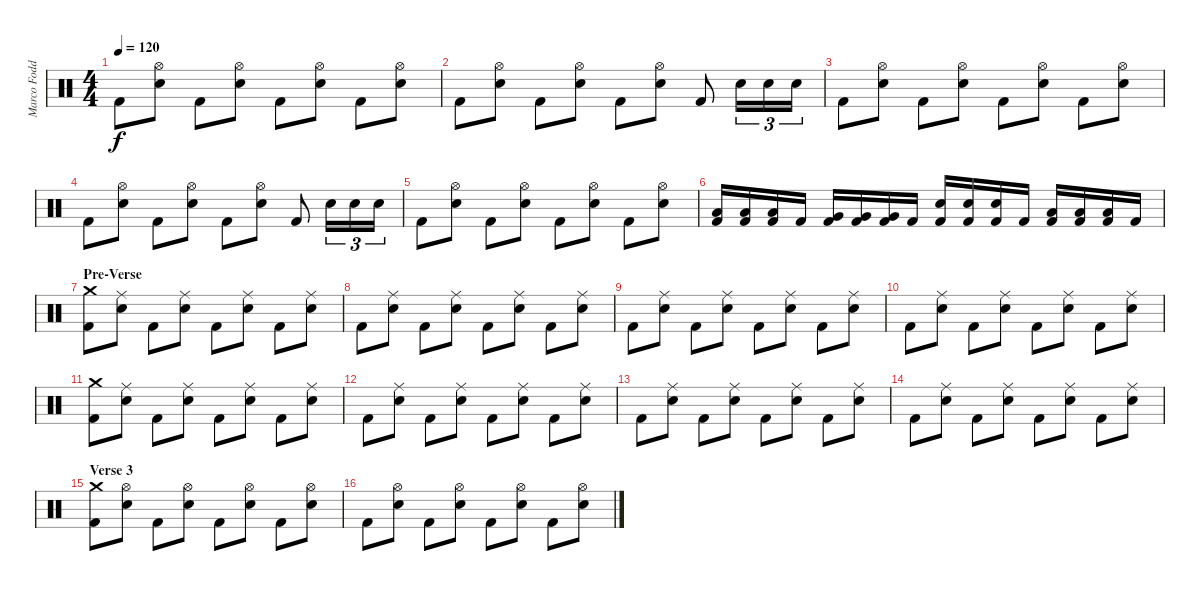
\track ("Marco Foddis " "Marco Fodd") {instrument percussion}
\staff {score}
\articulation defaults
\ts (4 4)
\tempo 120
\clef neutral
\ks c "Kick (hit) 2".8{dy f}
("Hi-Hat (open)" "Electric Snare (hit)").8 "Kick (hit) 2".8 ("Hi-Hat (open)" "Electric Snare (hit)").8 "Kick (hit) 2".8 ("Hi-Hat (open)" "Electric Snare (hit)").8 "Kick (hit) 2".8 ("Hi-Hat (open)" "Electric Snare (hit)").8 |
"Kick (hit) 2".8 ("Hi-Hat (open)" "Electric Snare (hit)").8 "Kick (hit) 2".8 ("Hi-Hat (open)" "Electric Snare (hit)").8 "Kick (hit) 2".8 ("Hi-Hat (open)" "Electric Snare (hit)").8 "Kick (hit) 2".8 "Electric Snare (hit)".16{tu (3 2)} "Electric Snare (hit)".16{tu (3 2)} "Electric Snare (hit)".16{tu (3 2)} |
"Kick (hit) 2".8 ("Hi-Hat (open)" "Electric Snare (hit)").8 "Kick (hit) 2".8 ("Hi-Hat (open)" "Electric Snare (hit)").8 "Kick (hit) 2".8 ("Hi-Hat (open)" "Electric Snare (hit)").8 "Kick (hit) 2".8 ("Hi-Hat (open)" "Electric Snare (hit)").8 |
"Kick (hit) 2".8 ("Hi-Hat (open)" "Electric Snare (hit)").8 "Kick (hit) 2".8 ("Hi-Hat (open)" "Electric Snare (hit)").8 "Kick (hit) 2".8 ("Hi-Hat (open)" "Electric Snare (hit)").8 "Kick (hit) 2".8 "Electric Snare (hit)".16{tu (3 2)} "Electric Snare (hit)".16{tu (3 2)} "Electric Snare (hit)".16{tu (3 2)} |
"Kick (hit) 2".8 ("Hi-Hat (open)" "Electric Snare (hit)").8 "Kick (hit) 2".8 ("Hi-Hat (open)" "Electric Snare (hit)").8 "Kick (hit) 2".8 ("Hi-Hat (open)" "Electric Snare (hit)").8 "Kick (hit) 2".8 ("Hi-Hat (open)" "Electric Snare (hit)").8 |
("Low Tom (hit)" "Kick (hit) 2").16 ("Low Tom (hit)" "Kick (hit) 2").16 ("Low Tom (hit)" "Kick (hit) 2").16 "Kick (hit) 2".16 ("Very Low Tom (hit)" "Kick (hit) 2").16 ("Very Low Tom (hit)" "Kick (hit) 2").16 ("Very Low Tom (hit)" "Kick (hit) 2").16 "Kick (hit) 2".16 ("Electric Snare (hit)" "Kick (hit) 2").16 ("Electric Snare (hit)" "Kick (hit) 2").16 ("Electric Snare (hit)" "Kick (hit) 2").16 "Kick (hit) 2".16 ("Low Floor Tom (hit)" "Kick (hit) 2").16 ("Low Floor Tom (hit)" "Kick (hit) 2").16 ("Low Floor Tom (hit)" "Kick (hit) 2").16 "Kick (hit) 2".16 |
\section ("" "Pre-Verse")
("Crash medium (hit)" "Kick (hit) 2").8 ("Ride (middle)" "Electric Snare (hit)").8 "Kick (hit) 2".8 ("Ride (middle)" "Electric Snare (hit)").8 "Kick (hit) 2".8 ("Ride (middle)" "Electric Snare (hit)").8 "Kick (hit) 2".8 ("Ride (middle)" "Electric Snare (hit)").8 |
"Kick (hit) 2".8 ("Ride (middle)" "Electric Snare (hit)").8 "Kick (hit) 2".8 ("Ride (middle)" "Electric Snare (hit)").8 "Kick (hit) 2".8 ("Ride (middle)" "Electric Snare (hit)").8 "Kick (hit) 2".8 ("Ride (middle)" "Electric Snare (hit)").8 |
"Kick (hit) 2".8 ("Ride (middle)" "Electric Snare (hit)").8 "Kick (hit) 2".8 ("Ride (middle)" "Electric Snare (hit)").8 "Kick (hit) 2".8 ("Ride (middle)" "Electric Snare (hit)").8 "Kick (hit) 2".8 ("Ride (middle)" "Electric Snare (hit)").8 |
"Kick (hit) 2".8 ("Ride (middle)" "Electric Snare (hit)").8 "Kick (hit) 2".8 ("Ride (middle)" "Electric Snare (hit)").8 "Kick (hit) 2".8 ("Ride (middle)" "Electric Snare (hit)").8 "Kick (hit) 2".8 ("Ride (middle)" "Electric Snare (hit)").8 |
("Crash medium (hit)" "Kick (hit) 2").8 ("Ride (middle)" "Electric Snare (hit)").8 "Kick (hit) 2".8 ("Ride (middle)" "Electric Snare (hit)").8 "Kick (hit) 2".8 ("Ride (middle)" "Electric Snare (hit)").8 "Kick (hit) 2".8 ("Ride (middle)" "Electric Snare (hit)").8 |
"Kick (hit) 2".8 ("Ride (middle)" "Electric Snare (hit)").8 "Kick (hit) 2".8 ("Ride (middle)" "Electric Snare (hit)").8 "Kick (hit) 2".8 ("Ride (middle)" "Electric Snare (hit)").8 "Kick (hit) 2".8 ("Ride (middle)" "Electric Snare (hit)").8 |
"Kick (hit) 2".8 ("Ride (middle)" "Electric Snare (hit)").8 "Kick (hit) 2".8 ("Ride (middle)" "Electric Snare (hit)").8 "Kick (hit) 2".8 ("Ride (middle)" "Electric Snare (hit)").8 "Kick (hit) 2".8 ("Ride (middle)" "Electric Snare (hit)").8 |
"Kick (hit) 2".8 ("Ride (middle)" "Electric Snare (hit)").8 "Kick (hit) 2".8 ("Ride (middle)" "Electric Snare (hit)").8 "Kick (hit) 2".8 ("Ride (middle)" "Electric Snare (hit)").8 "Kick (hit) 2".8 ("Ride (middle)" "Electric Snare (hit)").8 |
\section ("" "Verse 3")
("Crash medium (hit)" "Kick (hit) 2").8 ("Hi-Hat (open)" "Electric Snare (hit)").8 "Kick (hit) 2".8 ("Hi-Hat (open)" "Electric Snare (hit)").8 "Kick (hit) 2".8 ("Hi-Hat (open)" "Electric Snare (hit)").8 "Kick (hit) 2".8 ("Hi-Hat (open)" "Electric Snare (hit)").8 |
"Kick (hit) 2".8 ("Hi-Hat (open)" "Electric Snare (hit)").8 "Kick (hit) 2".8 ("Hi-Hat (open)" "Electric Snare (hit)").8 "Kick (hit) 2".8 ("Hi-Hat (open)" "Electric Snare (hit)").8 "Kick (hit) 2".8 ("Hi-Hat (open)" "Electric Snare (hit)").8
